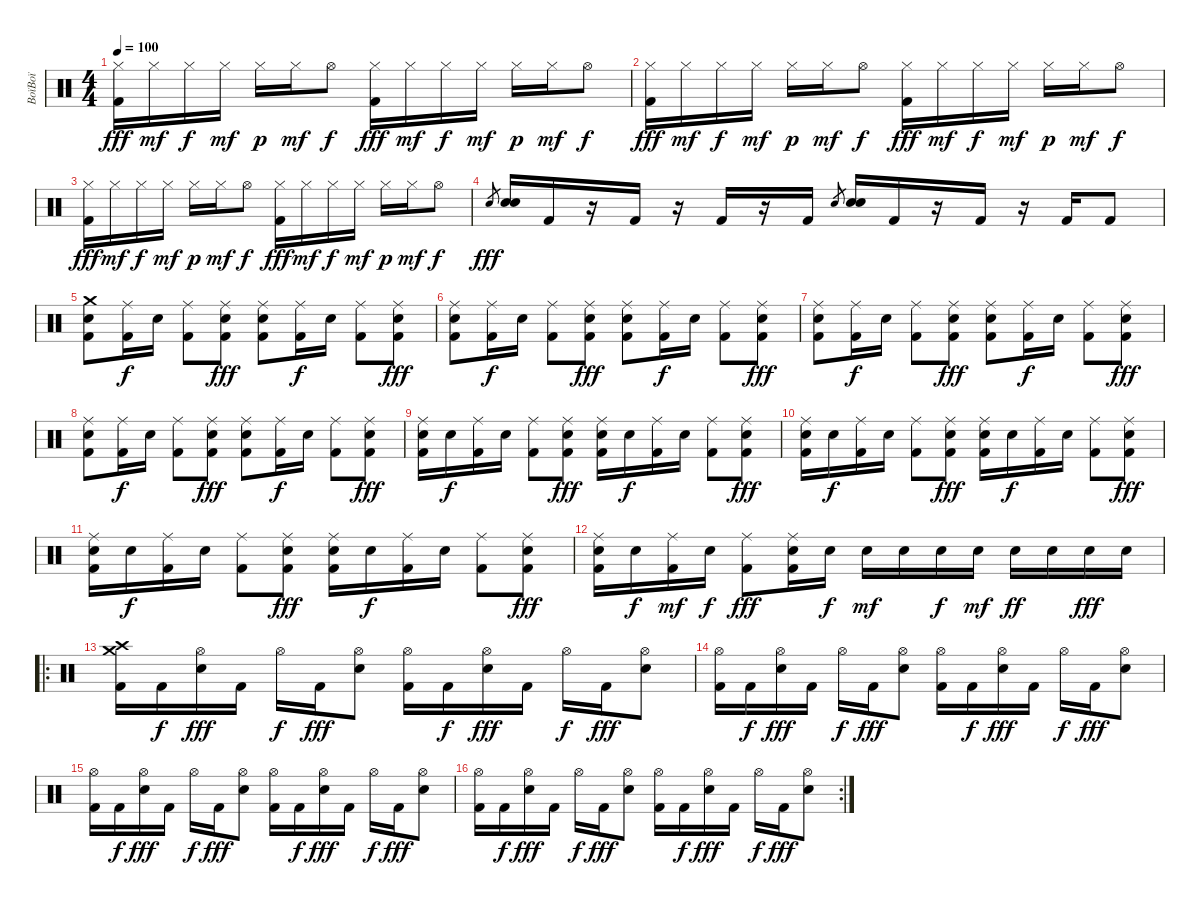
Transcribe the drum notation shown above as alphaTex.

\track ("BoïBoï" "BoïBoï") {instrument percussion}
\staff {score}
\articulation defaults
\ts (4 4)
\tempo 100
\clef neutral
\ks c
("Hi-Hat (closed)" "Kick (hit) 2").16{dy fff} "Hi-Hat (closed)".16{dy mf} "Hi-Hat (closed)".16{dy f} "Hi-Hat (closed)".16{dy mf} "Hi-Hat (closed)".16{dy p} "Hi-Hat (closed)".16{dy mf} "Hi-Hat (open)".8{dy f} ("Hi-Hat (closed)" "Kick (hit) 2").16{dy fff} "Hi-Hat (closed)".16{dy mf} "Hi-Hat (closed)".16{dy f} "Hi-Hat (closed)".16{dy mf} "Hi-Hat (closed)".16{dy p} "Hi-Hat (closed)".16{dy mf} "Hi-Hat (open)".8{dy f} |
("Hi-Hat (closed)" "Kick (hit) 2").16{dy fff} "Hi-Hat (closed)".16{dy mf} "Hi-Hat (closed)".16{dy f} "Hi-Hat (closed)".16{dy mf} "Hi-Hat (closed)".16{dy p} "Hi-Hat (closed)".16{dy mf} "Hi-Hat (open)".8{dy f} ("Hi-Hat (closed)" "Kick (hit) 2").16{dy fff} "Hi-Hat (closed)".16{dy mf} "Hi-Hat (closed)".16{dy f} "Hi-Hat (closed)".16{dy mf} "Hi-Hat (closed)".16{dy p} "Hi-Hat (closed)".16{dy mf} "Hi-Hat (open)".8{dy f} |
("Hi-Hat (closed)" "Kick (hit) 2").16{dy fff} "Hi-Hat (closed)".16{dy mf} "Hi-Hat (closed)".16{dy f} "Hi-Hat (closed)".16{dy mf} "Hi-Hat (closed)".16{dy p} "Hi-Hat (closed)".16{dy mf} "Hi-Hat (open)".8{dy f} ("Hi-Hat (closed)" "Kick (hit) 2").16{dy fff} "Hi-Hat (closed)".16{dy mf} "Hi-Hat (closed)".16{dy f} "Hi-Hat (closed)".16{dy mf} "Hi-Hat (closed)".16{dy p} "Hi-Hat (closed)".16{dy mf} "Hi-Hat (open)".8{dy f} |
"Electric Snare (hit)".8{gr dy fff} ("Electric Snare (hit)" "Snare (hit) 2").16 "Kick (hit) 2".16 r.16 "Kick (hit) 2".16 r.16 "Kick (hit) 2".16 r.16 "Kick (hit) 2".16 "Electric Snare (hit)".8{gr} ("Electric Snare (hit)" "Snare (hit) 2").16 "Kick (hit) 2".16 r.16 "Kick (hit) 2".16 r.16 "Kick (hit) 2".16 "Kick (hit) 2".8 |
("Crash medium (hit)" "Electric Snare (hit)" "Kick (hit) 2").8 ("Ride (middle)" "Kick (hit) 2").16{dy f} "Electric Snare (hit)".16 ("Ride (middle)" "Kick (hit) 2").8 ("Ride (middle)" "Electric Snare (hit)" "Kick (hit) 2").8{dy fff} ("Ride (middle)" "Electric Snare (hit)" "Kick (hit) 2").8 ("Ride (middle)" "Kick (hit) 2").16{dy f} "Electric Snare (hit)".16 ("Ride (middle)" "Kick (hit) 2").8 ("Ride (middle)" "Electric Snare (hit)" "Kick (hit) 2").8{dy fff} |
("Ride (middle)" "Electric Snare (hit)" "Kick (hit) 2").8 ("Ride (middle)" "Kick (hit) 2").16{dy f} "Electric Snare (hit)".16 ("Ride (middle)" "Kick (hit) 2").8 ("Ride (middle)" "Electric Snare (hit)" "Kick (hit) 2").8{dy fff} ("Ride (middle)" "Electric Snare (hit)" "Kick (hit) 2").8 ("Ride (middle)" "Kick (hit) 2").16{dy f} "Electric Snare (hit)".16 ("Ride (middle)" "Kick (hit) 2").8 ("Ride (middle)" "Electric Snare (hit)" "Kick (hit) 2").8{dy fff} |
("Ride (middle)" "Electric Snare (hit)" "Kick (hit) 2").8 ("Ride (middle)" "Kick (hit) 2").16{dy f} "Electric Snare (hit)".16 ("Ride (middle)" "Kick (hit) 2").8 ("Ride (middle)" "Electric Snare (hit)" "Kick (hit) 2").8{dy fff} ("Ride (middle)" "Electric Snare (hit)" "Kick (hit) 2").8 ("Ride (middle)" "Kick (hit) 2").16{dy f} "Electric Snare (hit)".16 ("Ride (middle)" "Kick (hit) 2").8 ("Ride (middle)" "Electric Snare (hit)" "Kick (hit) 2").8{dy fff} |
("Ride (middle)" "Electric Snare (hit)" "Kick (hit) 2").8 ("Ride (middle)" "Kick (hit) 2").16{dy f} "Electric Snare (hit)".16 ("Ride (middle)" "Kick (hit) 2").8 ("Ride (middle)" "Electric Snare (hit)" "Kick (hit) 2").8{dy fff} ("Ride (middle)" "Electric Snare (hit)" "Kick (hit) 2").8 ("Ride (middle)" "Kick (hit) 2").16{dy f} "Electric Snare (hit)".16 ("Ride (middle)" "Kick (hit) 2").8 ("Ride (middle)" "Electric Snare (hit)" "Kick (hit) 2").8{dy fff} |
("Ride (middle)" "Electric Snare (hit)" "Kick (hit) 2").16 "Electric Snare (hit)".16{dy f} ("Ride (middle)" "Kick (hit) 2").16 "Electric Snare (hit)".16 ("Ride (middle)" "Kick (hit) 2").8 ("Ride (middle)" "Electric Snare (hit)" "Kick (hit) 2").8{dy fff} ("Ride (middle)" "Electric Snare (hit)" "Kick (hit) 2").16 "Electric Snare (hit)".16{dy f} ("Ride (middle)" "Kick (hit) 2").16 "Electric Snare (hit)".16 ("Ride (middle)" "Kick (hit) 2").8 ("Ride (middle)" "Electric Snare (hit)" "Kick (hit) 2").8{dy fff} |
("Ride (middle)" "Electric Snare (hit)" "Kick (hit) 2").16 "Electric Snare (hit)".16{dy f} ("Ride (middle)" "Kick (hit) 2").16 "Electric Snare (hit)".16 ("Ride (middle)" "Kick (hit) 2").8 ("Ride (middle)" "Electric Snare (hit)" "Kick (hit) 2").8{dy fff} ("Ride (middle)" "Electric Snare (hit)" "Kick (hit) 2").16 "Electric Snare (hit)".16{dy f} ("Ride (middle)" "Kick (hit) 2").16 "Electric Snare (hit)".16 ("Ride (middle)" "Kick (hit) 2").8 ("Ride (middle)" "Electric Snare (hit)" "Kick (hit) 2").8{dy fff} |
("Ride (middle)" "Electric Snare (hit)" "Kick (hit) 2").16 "Electric Snare (hit)".16{dy f} ("Ride (middle)" "Kick (hit) 2").16 "Electric Snare (hit)".16 ("Ride (middle)" "Kick (hit) 2").8 ("Ride (middle)" "Electric Snare (hit)" "Kick (hit) 2").8{dy fff} ("Ride (middle)" "Electric Snare (hit)" "Kick (hit) 2").16 "Electric Snare (hit)".16{dy f} ("Ride (middle)" "Kick (hit) 2").16 "Electric Snare (hit)".16 ("Ride (middle)" "Kick (hit) 2").8 ("Ride (middle)" "Electric Snare (hit)" "Kick (hit) 2").8{dy fff} |
("Ride (middle)" "Electric Snare (hit)" "Kick (hit) 2").16 "Electric Snare (hit)".16{dy f} ("Ride (middle)" "Kick (hit) 2").16{dy mf} "Electric Snare (hit)".16{dy f} ("Ride (middle)" "Kick (hit) 2").8{dy fff} ("Ride (middle)" "Electric Snare (hit)" "Kick (hit) 2").16 "Electric Snare (hit)".16{dy f} "Electric Snare (hit)".16{dy mf} "Electric Snare (hit)".16 "Electric Snare (hit)".16{dy f} "Electric Snare (hit)".16{dy mf} "Electric Snare (hit)".16{dy ff} "Electric Snare (hit)".16 "Electric Snare (hit)".16{dy fff} "Electric Snare (hit)".16 |
\ro
("Crash medium (hit)" "Crash high (hit)" "Kick (hit) 2").16 "Kick (hit) 2".16{dy f} ("Hi-Hat (open)" "Electric Snare (hit)").16{dy fff} "Kick (hit) 2".16 "Hi-Hat (open)".16{dy f} "Kick (hit) 2".16{dy fff} ("Hi-Hat (open)" "Electric Snare (hit)").8 ("Hi-Hat (open)" "Kick (hit) 2").16 "Kick (hit) 2".16{dy f} ("Hi-Hat (open)" "Electric Snare (hit)").16{dy fff} "Kick (hit) 2".16 "Hi-Hat (open)".16{dy f} "Kick (hit) 2".16{dy fff} ("Hi-Hat (open)" "Electric Snare (hit)").8 |
("Hi-Hat (open)" "Kick (hit) 2").16 "Kick (hit) 2".16{dy f} ("Hi-Hat (open)" "Electric Snare (hit)").16{dy fff} "Kick (hit) 2".16 "Hi-Hat (open)".16{dy f} "Kick (hit) 2".16{dy fff} ("Hi-Hat (open)" "Electric Snare (hit)").8 ("Hi-Hat (open)" "Kick (hit) 2").16 "Kick (hit) 2".16{dy f} ("Hi-Hat (open)" "Electric Snare (hit)").16{dy fff} "Kick (hit) 2".16 "Hi-Hat (open)".16{dy f} "Kick (hit) 2".16{dy fff} ("Hi-Hat (open)" "Electric Snare (hit)").8 |
("Hi-Hat (open)" "Kick (hit) 2").16 "Kick (hit) 2".16{dy f} ("Hi-Hat (open)" "Electric Snare (hit)").16{dy fff} "Kick (hit) 2".16 "Hi-Hat (open)".16{dy f} "Kick (hit) 2".16{dy fff} ("Hi-Hat (open)" "Electric Snare (hit)").8 ("Hi-Hat (open)" "Kick (hit) 2").16 "Kick (hit) 2".16{dy f} ("Hi-Hat (open)" "Electric Snare (hit)").16{dy fff} "Kick (hit) 2".16 "Hi-Hat (open)".16{dy f} "Kick (hit) 2".16{dy fff} ("Hi-Hat (open)" "Electric Snare (hit)").8 |
\rc 2
("Hi-Hat (open)" "Kick (hit) 2").16 "Kick (hit) 2".16{dy f} ("Hi-Hat (open)" "Electric Snare (hit)").16{dy fff} "Kick (hit) 2".16 "Hi-Hat (open)".16{dy f} "Kick (hit) 2".16{dy fff} ("Hi-Hat (open)" "Electric Snare (hit)").8 ("Hi-Hat (open)" "Kick (hit) 2").16 "Kick (hit) 2".16{dy f} ("Hi-Hat (open)" "Electric Snare (hit)").16{dy fff} "Kick (hit) 2".16 "Hi-Hat (open)".16{dy f} "Kick (hit) 2".16{dy fff} ("Hi-Hat (open)" "Electric Snare (hit)").8
